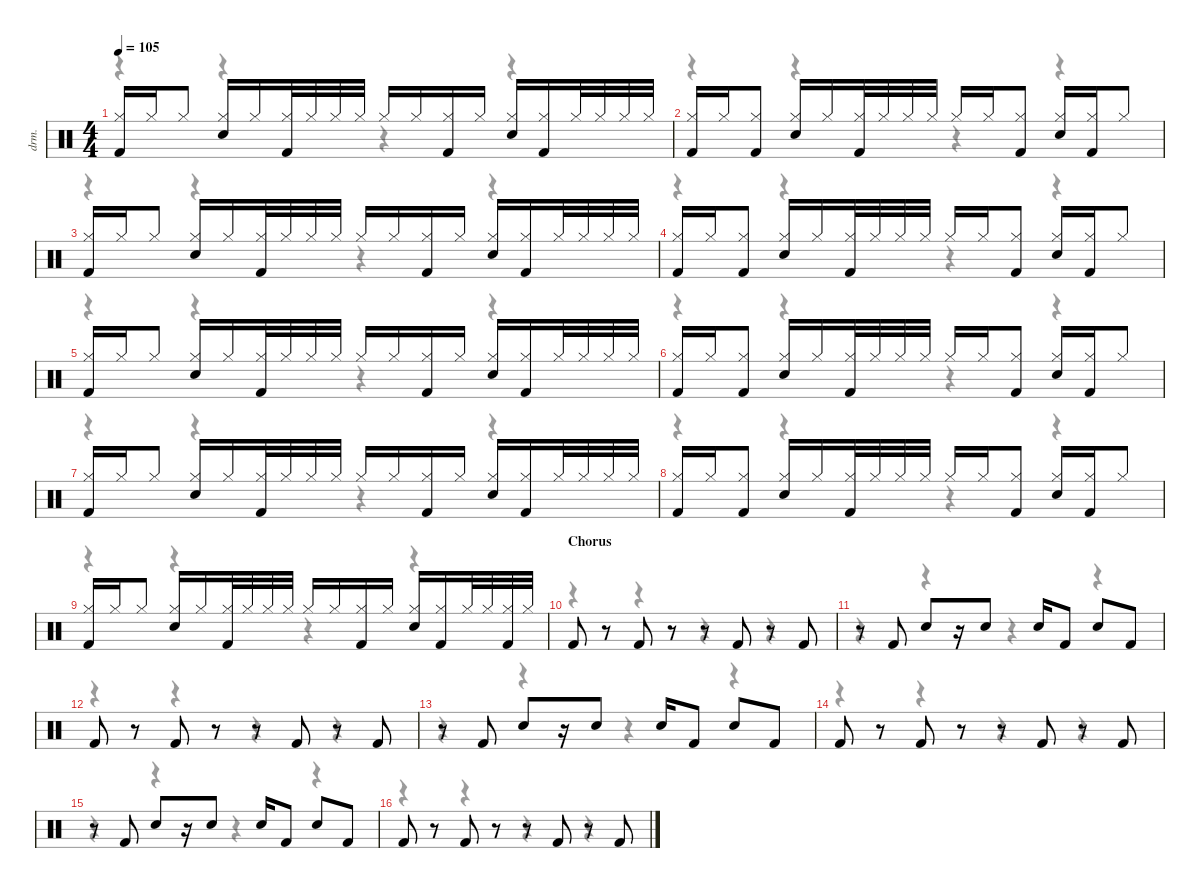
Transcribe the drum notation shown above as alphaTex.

\defaultSystemsLayout 4
\hideDynamics
\bracketExtendMode nobrackets
\otherSystemsTrackNameOrientation horizontal
\track ("Drums" "drm.") {instrument percussion}
\staff {score}
\articulation defaults
\voice
\ts (4 4)
\tempo 105
\clef neutral
\ks c
("Hi-Hat (closed)" "Kick (hit) 2").16{dy mp} "Hi-Hat (closed)".16 "Hi-Hat (closed)".8 ("Hi-Hat (closed)" "Snare (hit) 2").16 "Hi-Hat (closed)".16 ("Hi-Hat (closed)" "Kick (hit) 2").32 "Hi-Hat (closed)".32 "Hi-Hat (closed)".32 "Hi-Hat (closed)".32 "Hi-Hat (closed)".16 "Hi-Hat (closed)".16 ("Hi-Hat (closed)" "Kick (hit) 2").16 "Hi-Hat (closed)".16 ("Hi-Hat (closed)" "Snare (hit) 2").16 ("Hi-Hat (closed)" "Kick (hit) 2").16 "Hi-Hat (closed)".32 "Hi-Hat (closed)".32 "Hi-Hat (closed)".32 "Hi-Hat (closed)".32 |
("Hi-Hat (closed)" "Kick (hit) 2").16 "Hi-Hat (closed)".16 ("Hi-Hat (closed)" "Kick (hit) 2").8 ("Hi-Hat (closed)" "Snare (hit) 2").16 "Hi-Hat (closed)".16 ("Hi-Hat (closed)" "Kick (hit) 2").32 "Hi-Hat (closed)".32 "Hi-Hat (closed)".32 "Hi-Hat (closed)".32 "Hi-Hat (closed)".16 "Hi-Hat (closed)".16 ("Hi-Hat (closed)" "Kick (hit) 2").8 ("Hi-Hat (closed)" "Snare (hit) 2").16 ("Hi-Hat (closed)" "Kick (hit) 2").16 "Hi-Hat (closed)".8 |
("Hi-Hat (closed)" "Kick (hit) 2").16 "Hi-Hat (closed)".16 "Hi-Hat (closed)".8 ("Hi-Hat (closed)" "Snare (hit) 2").16 "Hi-Hat (closed)".16 ("Hi-Hat (closed)" "Kick (hit) 2").32 "Hi-Hat (closed)".32 "Hi-Hat (closed)".32 "Hi-Hat (closed)".32 "Hi-Hat (closed)".16 "Hi-Hat (closed)".16 ("Hi-Hat (closed)" "Kick (hit) 2").16 "Hi-Hat (closed)".16 ("Hi-Hat (closed)" "Snare (hit) 2").16 ("Hi-Hat (closed)" "Kick (hit) 2").16 "Hi-Hat (closed)".32 "Hi-Hat (closed)".32 "Hi-Hat (closed)".32 "Hi-Hat (closed)".32 |
("Hi-Hat (closed)" "Kick (hit) 2").16 "Hi-Hat (closed)".16 ("Hi-Hat (closed)" "Kick (hit) 2").8 ("Hi-Hat (closed)" "Snare (hit) 2").16 "Hi-Hat (closed)".16 ("Hi-Hat (closed)" "Kick (hit) 2").32 "Hi-Hat (closed)".32 "Hi-Hat (closed)".32 "Hi-Hat (closed)".32 "Hi-Hat (closed)".16 "Hi-Hat (closed)".16 ("Hi-Hat (closed)" "Kick (hit) 2").8 ("Hi-Hat (closed)" "Snare (hit) 2").16 ("Hi-Hat (closed)" "Kick (hit) 2").16 "Hi-Hat (closed)".8 |
("Hi-Hat (closed)" "Kick (hit) 2").16 "Hi-Hat (closed)".16 "Hi-Hat (closed)".8 ("Hi-Hat (closed)" "Snare (hit) 2").16 "Hi-Hat (closed)".16 ("Hi-Hat (closed)" "Kick (hit) 2").32 "Hi-Hat (closed)".32 "Hi-Hat (closed)".32 "Hi-Hat (closed)".32 "Hi-Hat (closed)".16 "Hi-Hat (closed)".16 ("Hi-Hat (closed)" "Kick (hit) 2").16 "Hi-Hat (closed)".16 ("Hi-Hat (closed)" "Snare (hit) 2").16 ("Hi-Hat (closed)" "Kick (hit) 2").16 "Hi-Hat (closed)".32 "Hi-Hat (closed)".32 "Hi-Hat (closed)".32 "Hi-Hat (closed)".32 |
("Hi-Hat (closed)" "Kick (hit) 2").16 "Hi-Hat (closed)".16 ("Hi-Hat (closed)" "Kick (hit) 2").8 ("Hi-Hat (closed)" "Snare (hit) 2").16 "Hi-Hat (closed)".16 ("Hi-Hat (closed)" "Kick (hit) 2").32 "Hi-Hat (closed)".32 "Hi-Hat (closed)".32 "Hi-Hat (closed)".32 "Hi-Hat (closed)".16 "Hi-Hat (closed)".16 ("Hi-Hat (closed)" "Kick (hit) 2").8 ("Hi-Hat (closed)" "Snare (hit) 2").16 ("Hi-Hat (closed)" "Kick (hit) 2").16 "Hi-Hat (closed)".8 |
("Hi-Hat (closed)" "Kick (hit) 2").16 "Hi-Hat (closed)".16 "Hi-Hat (closed)".8 ("Hi-Hat (closed)" "Snare (hit) 2").16 "Hi-Hat (closed)".16 ("Hi-Hat (closed)" "Kick (hit) 2").32 "Hi-Hat (closed)".32 "Hi-Hat (closed)".32 "Hi-Hat (closed)".32 "Hi-Hat (closed)".16 "Hi-Hat (closed)".16 ("Hi-Hat (closed)" "Kick (hit) 2").16 "Hi-Hat (closed)".16 ("Hi-Hat (closed)" "Snare (hit) 2").16 ("Hi-Hat (closed)" "Kick (hit) 2").16 "Hi-Hat (closed)".32 "Hi-Hat (closed)".32 "Hi-Hat (closed)".32 "Hi-Hat (closed)".32 |
("Hi-Hat (closed)" "Kick (hit) 2").16 "Hi-Hat (closed)".16 ("Hi-Hat (closed)" "Kick (hit) 2").8 ("Hi-Hat (closed)" "Snare (hit) 2").16 "Hi-Hat (closed)".16 ("Hi-Hat (closed)" "Kick (hit) 2").32 "Hi-Hat (closed)".32 "Hi-Hat (closed)".32 "Hi-Hat (closed)".32 "Hi-Hat (closed)".16 "Hi-Hat (closed)".16 ("Hi-Hat (closed)" "Kick (hit) 2").8 ("Hi-Hat (closed)" "Snare (hit) 2").16 ("Hi-Hat (closed)" "Kick (hit) 2").16 "Hi-Hat (closed)".8 |
("Hi-Hat (closed)" "Kick (hit) 2").16 "Hi-Hat (closed)".16 "Hi-Hat (closed)".8 ("Hi-Hat (closed)" "Snare (hit) 2").16 "Hi-Hat (closed)".16 ("Hi-Hat (closed)" "Kick (hit) 2").32 "Hi-Hat (closed)".32 "Hi-Hat (closed)".32 "Hi-Hat (closed)".32 "Hi-Hat (closed)".16 "Hi-Hat (closed)".16 ("Hi-Hat (closed)" "Kick (hit) 2").16 "Hi-Hat (closed)".16 ("Hi-Hat (closed)" "Snare (hit) 2").16 ("Hi-Hat (closed)" "Kick (hit) 2").16 "Hi-Hat (closed)".32 "Hi-Hat (closed)".32 ("Hi-Hat (closed)" "Kick (hit) 2").32 "Hi-Hat (closed)".32 |
\section ("" "Chorus")
"Kick (hit) 2".8{dy fff} r.8 "Kick (hit) 2".8 r.8 r.8 "Kick (hit) 2".8 r.8 "Kick (hit) 2".8 |
r.8 "Kick (hit) 2".8 "Snare (hit) 2".8 r.16 "Snare (hit) 2".8 "Snare (hit) 2".16 "Kick (hit) 2".8 "Snare (hit) 2".8 "Kick (hit) 2".8 |
"Kick (hit) 2".8 r.8 "Kick (hit) 2".8 r.8 r.8 "Kick (hit) 2".8 r.8 "Kick (hit) 2".8 |
r.8 "Kick (hit) 2".8 "Snare (hit) 2".8 r.16 "Snare (hit) 2".8 "Snare (hit) 2".16 "Kick (hit) 2".8 "Snare (hit) 2".8 "Kick (hit) 2".8 |
"Kick (hit) 2".8 r.8 "Kick (hit) 2".8 r.8 r.8 "Kick (hit) 2".8 r.8 "Kick (hit) 2".8 |
r.8 "Kick (hit) 2".8 "Snare (hit) 2".8 r.16 "Snare (hit) 2".8 "Snare (hit) 2".16 "Kick (hit) 2".8 "Snare (hit) 2".8 "Kick (hit) 2".8 |
"Kick (hit) 2".8 r.8 "Kick (hit) 2".8 r.8 r.8 "Kick (hit) 2".8 r.8 "Kick (hit) 2".8
\voice
\clef neutral
\ottava regular
\simile none
\ks c
r.4{dy mf} r.4 r.4 r.4 |
r.4 r.4 r.4 r.4 |
r.4 r.4 r.4 r.4 |
r.4 r.4 r.4 r.4 |
r.4 r.4 r.4 r.4 |
r.4 r.4 r.4 r.4 |
r.4 r.4 r.4 r.4 |
r.4 r.4 r.4 r.4 |
r.4 r.4 r.4 r.4 |
r.4 r.4 r.4 r.4 |
r.4 r.4 r.4 r.4 |
r.4 r.4 r.4 r.4 |
r.4 r.4 r.4 r.4 |
r.4 r.4 r.4 r.4 |
r.4 r.4 r.4 r.4 |
r.4 r.4 r.4 r.4
